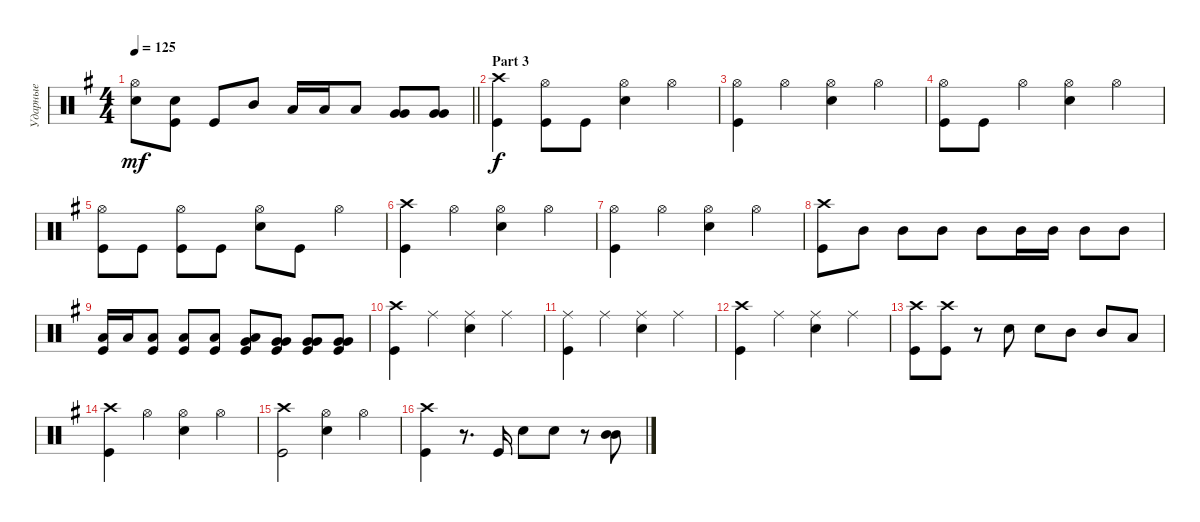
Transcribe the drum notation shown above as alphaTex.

\track ("Ударные" "Ударные") {instrument percussion}
\staff {score}
\articulation defaults
\ts (4 4)
\tempo 125
\clef neutral
\barLineRight lightlight
\ks eminor
("Snare (hit) 2" "Hi-Hat (open)").8{dy mf} ("Kick (hit)" "Snare (hit) 2").8 "Kick (hit)".8 "Mid Tom (hit)".8 "Low Tom (hit)".16 "Low Tom (hit)".16 "Low Tom (hit)".8 ("Very Low Tom (hit)" "Very Low Tom (hit)").8{bd 120} ("Very Low Tom (hit)" "Very Low Tom (hit)").8{bd 120} |
\section ("" "Part 3")
("Kick (hit)" "Crash high (hit)").4{dy f} ("Kick (hit)" "Hi-Hat (open)").8 "Kick (hit)".8 ("Snare (hit) 2" "Hi-Hat (open)").4 "Hi-Hat (open)".4 |
("Kick (hit)" "Hi-Hat (open)").4 "Hi-Hat (open)".4 ("Snare (hit) 2" "Hi-Hat (open)").4 "Hi-Hat (open)".4 |
("Hi-Hat (open)" "Kick (hit)").8 "Kick (hit)".8 "Hi-Hat (open)".4 ("Snare (hit) 2" "Hi-Hat (open)").4 "Hi-Hat (open)".4 |
("Hi-Hat (open)" "Kick (hit)").8 "Kick (hit)".8 ("Hi-Hat (open)" "Kick (hit)").8 "Kick (hit)".8 ("Snare (hit) 2" "Hi-Hat (open)").8 "Kick (hit)".8 "Hi-Hat (open)".4 |
("Kick (hit)" "Crash high (hit)").4 "Hi-Hat (open)".4 ("Snare (hit) 2" "Hi-Hat (open)").4 "Hi-Hat (open)".4 |
("Kick (hit)" "Hi-Hat (open)").4 "Hi-Hat (open)".4 ("Snare (hit) 2" "Hi-Hat (open)").4 "Hi-Hat (open)".4 |
("Crash high (hit)" "Kick (hit)").8 "Mid Tom (hit)".8 "Mid Tom (hit)".8 "Mid Tom (hit)".8 "Mid Tom (hit)".8 "Mid Tom (hit)".16 "Mid Tom (hit)".16 "Mid Tom (hit)".8 "Mid Tom (hit)".8 |
("Low Tom (hit)" "Kick (hit)").16 "Low Tom (hit)".16 ("Low Tom (hit)" "Kick (hit)").8 ("Low Tom (hit)" "Kick (hit)").8 ("Low Tom (hit)" "Kick (hit)").8 ("Very Low Tom (hit)" "Kick (hit)" "Low Tom (hit)").8{bd 60} ("Very Low Tom (hit)" "Kick (hit)" "Very Low Tom (hit)").8{bd 60} ("Very Low Tom (hit)" "Kick (hit)" "Very Low Tom (hit)").8{bd 60} ("Very Low Tom (hit)" "Kick (hit)" "Very Low Tom (hit)").8{bd 60} |
("Kick (hit)" "Crash high (hit)").4 "Ride (middle)".4 ("Snare (hit) 2" "Ride (middle)").4 "Ride (middle)".4 |
("Kick (hit)" "Ride (middle)").4 "Ride (middle)".4 ("Snare (hit) 2" "Ride (middle)").4 "Ride (middle)".4 |
("Kick (hit)" "Crash high (hit)").4 "Ride (middle)".4 ("Snare (hit) 2" "Ride (middle)").4 "Ride (middle)".4 |
("Kick (hit)" "Crash high (hit)").8 ("Kick (hit)" "Crash high (hit)").8 r.8 "Snare (hit) 2".8 "Snare (hit) 2".8 "Mid Tom (hit)".8 "Mid Tom (hit)".8 "Low Tom (hit)".8 |
("Kick (hit)" "Crash high (hit)").4 "Hi-Hat (open)".4 ("Hi-Hat (open)" "Snare (hit) 2").4 "Hi-Hat (open)".4 |
("Kick (hit)" "Crash high (hit)").2 ("Hi-Hat (open)" "Snare (hit) 2").4 "Hi-Hat (open)".4 |
("Kick (hit)" "Crash high (hit)").4 r.8{d} "Kick (hit)".16 "Snare (hit) 2".8 "Snare (hit) 2".8 r.8 ("Mid Tom (hit)" "Mid Tom (hit)").8{bd 240}
